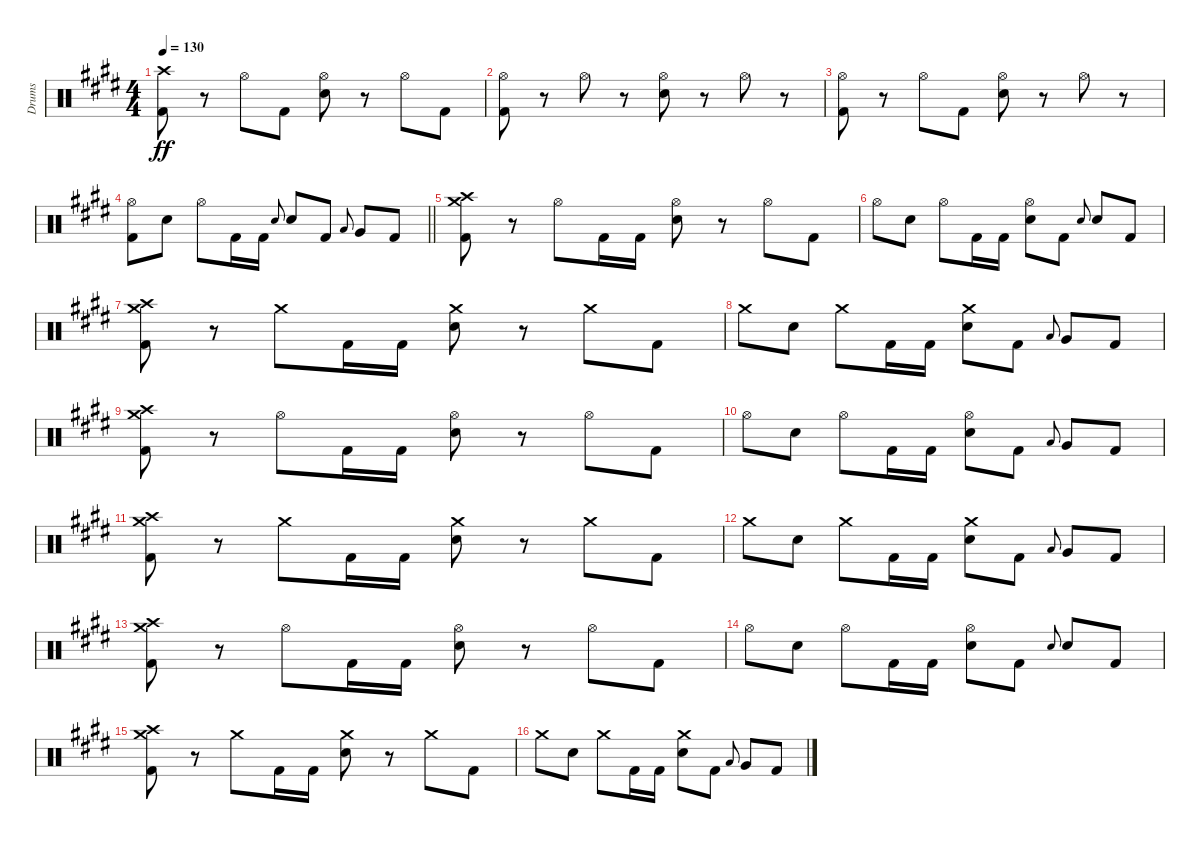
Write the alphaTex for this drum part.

\track ("Drums" "Drums") {instrument percussion}
\staff {score}
\articulation defaults
\ts (4 4)
\tempo 130
\clef neutral
\ks c#minor
("Crash high (hit)" "Kick (hit) 2").8{dy ff} r.8 "Hi-Hat (open)".8 "Kick (hit) 2".8 ("Hi-Hat (open)" "Electric Snare (hit)").8 r.8 "Hi-Hat (open)".8 "Kick (hit) 2".8 |
("Hi-Hat (open)" "Kick (hit) 2").8 r.8 "Hi-Hat (open)".8 r.8 ("Hi-Hat (open)" "Electric Snare (hit)").8 r.8 "Hi-Hat (open)".8 r.8 |
("Hi-Hat (open)" "Kick (hit) 2").8 r.8 "Hi-Hat (open)".8 "Kick (hit) 2".8 ("Hi-Hat (open)" "Electric Snare (hit)").8 r.8 "Hi-Hat (open)".8 r.8 |
\barLineRight lightlight
("Hi-Hat (open)" "Kick (hit) 2").8 "Electric Snare (hit)".8 "Hi-Hat (open)".8 "Kick (hit) 2".16 "Kick (hit) 2".16 "Electric Snare (hit)".8{gr onbeat} "Electric Snare (hit)".8 "Kick (hit) 2".8 "Low Floor Tom (hit)".8{gr onbeat} "Very Low Tom (hit)".8 "Kick (hit) 2".8 |
("Crash medium (hit)" "Crash high (hit)" "Kick (hit) 2").8 r.8 "Hi-Hat (open)".8 "Kick (hit) 2".16 "Kick (hit) 2".16 ("Hi-Hat (open)" "Electric Snare (hit)").8 r.8 "Hi-Hat (open)".8 "Kick (hit) 2".8 |
"Hi-Hat (open)".8 "Electric Snare (hit)".8 "Hi-Hat (open)".8 "Kick (hit) 2".16 "Kick (hit) 2".16 ("Hi-Hat (open)" "Electric Snare (hit)").8 "Kick (hit) 2".8 "Electric Snare (hit)".8{gr onbeat} "Electric Snare (hit)".8 "Kick (hit) 2".8 |
("Crash medium (hit)" "Crash high (hit)" "Kick (hit) 2").8 r.8 "Crash medium (hit)".8 "Kick (hit) 2".16 "Kick (hit) 2".16 ("Crash medium (hit)" "Electric Snare (hit)").8 r.8 "Crash medium (hit)".8 "Kick (hit) 2".8 |
"Crash medium (hit)".8 "Electric Snare (hit)".8 "Crash medium (hit)".8 "Kick (hit) 2".16 "Kick (hit) 2".16 ("Crash medium (hit)" "Electric Snare (hit)").8 "Kick (hit) 2".8 "Low Floor Tom (hit)".8{gr onbeat} "Very Low Tom (hit)".8 "Kick (hit) 2".8 |
("Crash medium (hit)" "Crash high (hit)" "Kick (hit) 2").8 r.8 "Hi-Hat (open)".8 "Kick (hit) 2".16 "Kick (hit) 2".16 ("Hi-Hat (open)" "Electric Snare (hit)").8 r.8 "Hi-Hat (open)".8 "Kick (hit) 2".8 |
"Hi-Hat (open)".8 "Electric Snare (hit)".8 "Hi-Hat (open)".8 "Kick (hit) 2".16 "Kick (hit) 2".16 ("Hi-Hat (open)" "Electric Snare (hit)").8 "Kick (hit) 2".8 "Low Floor Tom (hit)".8{gr onbeat} "Very Low Tom (hit)".8 "Kick (hit) 2".8 |
("Crash medium (hit)" "Crash high (hit)" "Kick (hit) 2").8 r.8 "Crash medium (hit)".8 "Kick (hit) 2".16 "Kick (hit) 2".16 ("Crash medium (hit)" "Electric Snare (hit)").8 r.8 "Crash medium (hit)".8 "Kick (hit) 2".8 |
"Crash medium (hit)".8 "Electric Snare (hit)".8 "Crash medium (hit)".8 "Kick (hit) 2".16 "Kick (hit) 2".16 ("Crash medium (hit)" "Electric Snare (hit)").8 "Kick (hit) 2".8 "Low Floor Tom (hit)".8{gr onbeat} "Very Low Tom (hit)".8 "Kick (hit) 2".8 |
("Crash medium (hit)" "Crash high (hit)" "Kick (hit) 2").8 r.8 "Hi-Hat (open)".8 "Kick (hit) 2".16 "Kick (hit) 2".16 ("Hi-Hat (open)" "Electric Snare (hit)").8 r.8 "Hi-Hat (open)".8 "Kick (hit) 2".8 |
"Hi-Hat (open)".8 "Electric Snare (hit)".8 "Hi-Hat (open)".8 "Kick (hit) 2".16 "Kick (hit) 2".16 ("Hi-Hat (open)" "Electric Snare (hit)").8 "Kick (hit) 2".8 "Electric Snare (hit)".8{gr onbeat} "Electric Snare (hit)".8 "Kick (hit) 2".8 |
("Crash medium (hit)" "Crash high (hit)" "Kick (hit) 2").8 r.8 "Crash medium (hit)".8 "Kick (hit) 2".16 "Kick (hit) 2".16 ("Crash medium (hit)" "Electric Snare (hit)").8 r.8 "Crash medium (hit)".8 "Kick (hit) 2".8 |
"Crash medium (hit)".8 "Electric Snare (hit)".8 "Crash medium (hit)".8 "Kick (hit) 2".16 "Kick (hit) 2".16 ("Crash medium (hit)" "Electric Snare (hit)").8 "Kick (hit) 2".8 "Low Floor Tom (hit)".8{gr onbeat} "Very Low Tom (hit)".8 "Kick (hit) 2".8
